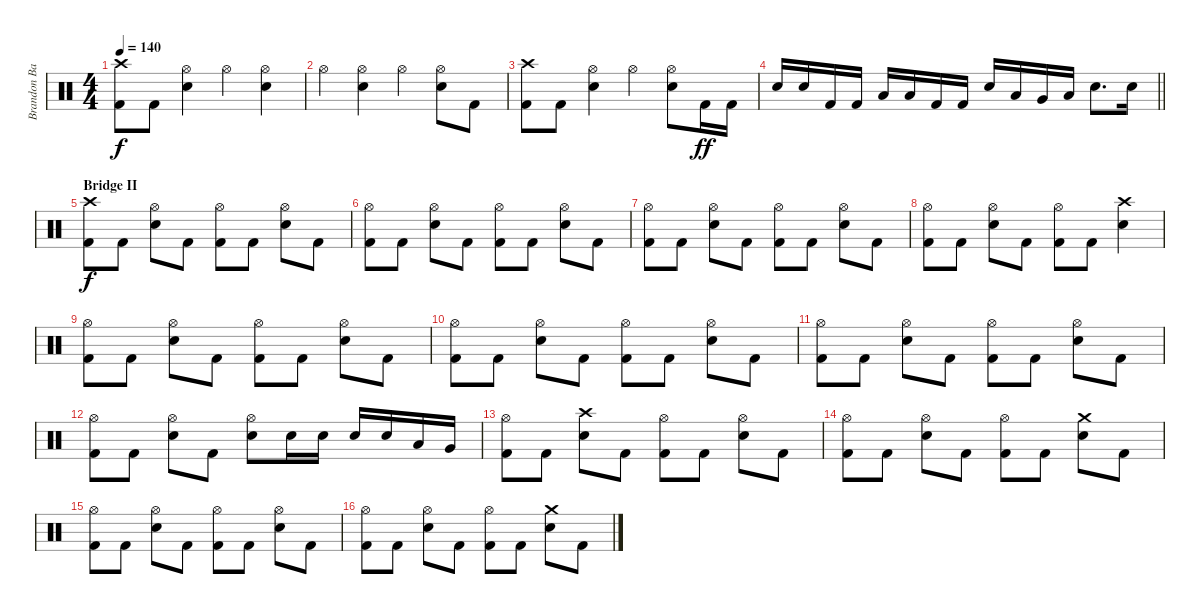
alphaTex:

\track ("Brandon Barnes - Drums" "Brandon Ba") {instrument percussion}
\staff {score}
\articulation defaults
\ts (4 4)
\tempo 140
\clef neutral
\ks c
("Crash high (hit)" "Kick (hit) 2").8{dy f} "Kick (hit) 2".8 ("Hi-Hat (open)" "Snare (hit) 2").4 "Hi-Hat (open)".4 ("Hi-Hat (open)" "Snare (hit) 2").4 |
"Hi-Hat (open)".4 ("Hi-Hat (open)" "Snare (hit) 2").4 "Hi-Hat (open)".4 ("Hi-Hat (open)" "Snare (hit) 2").8 "Kick (hit) 2".8 |
("Crash high (hit)" "Kick (hit) 2").8 "Kick (hit) 2".8 ("Hi-Hat (open)" "Snare (hit) 2").4 "Hi-Hat (open)".4 ("Hi-Hat (open)" "Snare (hit) 2").8 "Kick (hit) 2".16{dy ff} "Kick (hit) 2".16 |
\barLineRight lightlight "Snare (hit) 2".16 "Snare (hit) 2".16 "Kick (hit) 2".16 "Kick (hit) 2".16 "Low Tom (hit)".16 "Low Tom (hit)".16 "Kick (hit) 2".16 "Kick (hit) 2".16 "Snare (hit) 2".16 "Low Tom (hit)".16 "Very Low Tom (hit)".16 "Low Floor Tom (hit)".16 "Snare (hit) 2".8{d} "Snare (hit) 2".16
|
\section ("" "Bridge II")
("Crash high (hit)" "Kick (hit) 2").8{dy f} "Kick (hit) 2".8 ("Snare (hit) 2" "Hi-Hat (open)").8 "Kick (hit) 2".8 ("Kick (hit) 2" "Hi-Hat (open)").8 "Kick (hit) 2".8 ("Snare (hit) 2" "Hi-Hat (open)").8 "Kick (hit) 2".8 |
("Kick (hit) 2" "Hi-Hat (open)").8 "Kick (hit) 2".8 ("Snare (hit) 2" "Hi-Hat (open)").8 "Kick (hit) 2".8 ("Kick (hit) 2" "Hi-Hat (open)").8 "Kick (hit) 2".8 ("Snare (hit) 2" "Hi-Hat (open)").8 "Kick (hit) 2".8 |
("Kick (hit) 2" "Hi-Hat (open)").8 "Kick (hit) 2".8 ("Snare (hit) 2" "Hi-Hat (open)").8 "Kick (hit) 2".8 ("Kick (hit) 2" "Hi-Hat (open)").8 "Kick (hit) 2".8 ("Snare (hit) 2" "Hi-Hat (open)").8 "Kick (hit) 2".8 |
("Kick (hit) 2" "Hi-Hat (open)").8 "Kick (hit) 2".8 ("Snare (hit) 2" "Hi-Hat (open)").8 "Kick (hit) 2".8 ("Kick (hit) 2" "Hi-Hat (open)").8 "Kick (hit) 2".8 ("Snare (hit) 2" "Crash high (hit)").4 |
("Kick (hit) 2" "Hi-Hat (open)").8 "Kick (hit) 2".8 ("Snare (hit) 2" "Hi-Hat (open)").8 "Kick (hit) 2".8 ("Kick (hit) 2" "Hi-Hat (open)").8 "Kick (hit) 2".8 ("Snare (hit) 2" "Hi-Hat (open)").8 "Kick (hit) 2".8 |
("Kick (hit) 2" "Hi-Hat (open)").8 "Kick (hit) 2".8 ("Snare (hit) 2" "Hi-Hat (open)").8 "Kick (hit) 2".8 ("Kick (hit) 2" "Hi-Hat (open)").8 "Kick (hit) 2".8 ("Snare (hit) 2" "Hi-Hat (open)").8 "Kick (hit) 2".8 |
("Kick (hit) 2" "Hi-Hat (open)").8 "Kick (hit) 2".8 ("Snare (hit) 2" "Hi-Hat (open)").8 "Kick (hit) 2".8 ("Kick (hit) 2" "Hi-Hat (open)").8 "Kick (hit) 2".8 ("Snare (hit) 2" "Hi-Hat (open)").8 "Kick (hit) 2".8 |
("Kick (hit) 2" "Hi-Hat (open)").8 "Kick (hit) 2".8 ("Snare (hit) 2" "Hi-Hat (open)").8 "Kick (hit) 2".8 ("Snare (hit) 2" "Hi-Hat (open)").8 "Snare (hit) 2".16 "Snare (hit) 2".16 "Snare (hit) 2".16 "Snare (hit) 2".16 "Low Tom (hit)".16 "Very Low Tom (hit)".16 |
("Kick (hit) 2" "Hi-Hat (open)").8 "Kick (hit) 2".8 ("Snare (hit) 2" "Crash high (hit)").8 "Kick (hit) 2".8 ("Kick (hit) 2" "Hi-Hat (open)").8 "Kick (hit) 2".8 ("Snare (hit) 2" "Hi-Hat (open)").8 "Kick (hit) 2".8 |
("Kick (hit) 2" "Hi-Hat (open)").8 "Kick (hit) 2".8 ("Snare (hit) 2" "Hi-Hat (open)").8 "Kick (hit) 2".8 ("Kick (hit) 2" "Hi-Hat (open)").8 "Kick (hit) 2".8 ("Snare (hit) 2" "Crash medium (hit)").8 "Kick (hit) 2".8 |
("Kick (hit) 2" "Hi-Hat (open)").8 "Kick (hit) 2".8 ("Snare (hit) 2" "Hi-Hat (open)").8 "Kick (hit) 2".8 ("Kick (hit) 2" "Hi-Hat (open)").8 "Kick (hit) 2".8 ("Snare (hit) 2" "Hi-Hat (open)").8 "Kick (hit) 2".8 |
("Kick (hit) 2" "Hi-Hat (open)").8 "Kick (hit) 2".8 ("Snare (hit) 2" "Hi-Hat (open)").8 "Kick (hit) 2".8 ("Kick (hit) 2" "Hi-Hat (open)").8 "Kick (hit) 2".8 ("Snare (hit) 2" "Crash medium (hit)").8 "Kick (hit) 2".8
